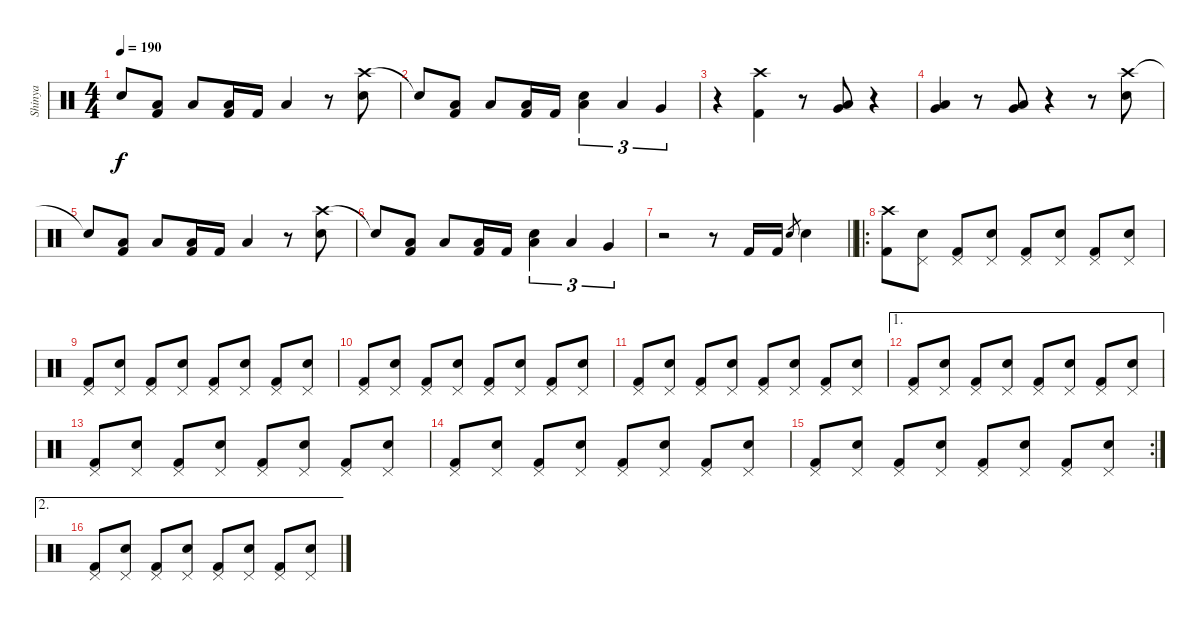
\track ("Shinya" "Shinya") {instrument percussion}
\staff {score}
\articulation defaults
\ts (4 4)
\tempo 190
\clef neutral
\ks c "Snare (hit)"{t}.8{dy f}
("Low Floor Tom (hit)" "Kick (hit) 2").8 "Low Floor Tom (hit)".8 ("Low Floor Tom (hit)" "Kick (hit) 2").16 "Kick (hit) 2".16 "Low Floor Tom (hit)".4 r.8 ("Crash high (hit)" "Electric Snare (hit)").8 |
"Snare (hit)"{t}.8 ("Low Floor Tom (hit)" "Kick (hit) 2").8 "Low Floor Tom (hit)".8 ("Low Floor Tom (hit)" "Kick (hit) 2").16 "Kick (hit) 2".16 ("Low Floor Tom (hit)" "Electric Snare (hit)").4{tu (3 2)} "Low Tom (hit)".4{tu (3 2)} "Very Low Tom (hit)".4{tu (3 2)} |
r.4 ("Crash high (hit)" "Kick (hit) 2").4 r.8 ("Low Tom (hit)" "Very Low Tom (hit)").8 r.4 |
("Very Low Tom (hit)" "Low Floor Tom (hit)").4 r.8 ("Very Low Tom (hit)" "Low Floor Tom (hit)").8 r.4 r.8 ("Crash high (hit)" "Electric Snare (hit)").8 |
"Snare (hit)"{t}.8 ("Low Floor Tom (hit)" "Kick (hit) 2").8 "Low Floor Tom (hit)".8 ("Low Floor Tom (hit)" "Kick (hit) 2").16 "Kick (hit) 2".16 "Low Floor Tom (hit)".4 r.8 ("Crash high (hit)" "Electric Snare (hit)").8 |
"Snare (hit)"{t}.8 ("Low Floor Tom (hit)" "Kick (hit) 2").8 "Low Floor Tom (hit)".8 ("Low Floor Tom (hit)" "Kick (hit) 2").16 "Kick (hit) 2".16 ("Low Floor Tom (hit)" "Electric Snare (hit)").4{tu (3 2)} "Low Tom (hit)".4{tu (3 2)} "Very Low Tom (hit)".4{tu (3 2)} |
\barLineRight lightlight
r.2 r.8 "Kick (hit) 2".16 "Kick (hit) 2".16 "Electric Snare (hit)".8{gr} "Electric Snare (hit)".4 |
\ro
("Crash high (hit)" "Kick (hit) 2").8 ("Pedal Hi-Hat (hit)" "Electric Snare (hit)").8 ("Pedal Hi-Hat (hit)" "Kick (hit) 2").8 ("Pedal Hi-Hat (hit)" "Electric Snare (hit)").8 ("Pedal Hi-Hat (hit)" "Kick (hit) 2").8 ("Pedal Hi-Hat (hit)" "Electric Snare (hit)").8 ("Pedal Hi-Hat (hit)" "Kick (hit) 2").8 ("Pedal Hi-Hat (hit)" "Electric Snare (hit)").8 |
("Pedal Hi-Hat (hit)" "Kick (hit) 2").8 ("Pedal Hi-Hat (hit)" "Electric Snare (hit)").8 ("Pedal Hi-Hat (hit)" "Kick (hit) 2").8 ("Pedal Hi-Hat (hit)" "Electric Snare (hit)").8 ("Pedal Hi-Hat (hit)" "Kick (hit) 2").8 ("Pedal Hi-Hat (hit)" "Electric Snare (hit)").8 ("Pedal Hi-Hat (hit)" "Kick (hit) 2").8 ("Pedal Hi-Hat (hit)" "Electric Snare (hit)").8 |
("Pedal Hi-Hat (hit)" "Kick (hit) 2").8 ("Pedal Hi-Hat (hit)" "Electric Snare (hit)").8 ("Pedal Hi-Hat (hit)" "Kick (hit) 2").8 ("Pedal Hi-Hat (hit)" "Electric Snare (hit)").8 ("Pedal Hi-Hat (hit)" "Kick (hit) 2").8 ("Pedal Hi-Hat (hit)" "Electric Snare (hit)").8 ("Pedal Hi-Hat (hit)" "Kick (hit) 2").8 ("Pedal Hi-Hat (hit)" "Electric Snare (hit)").8 |
("Pedal Hi-Hat (hit)" "Kick (hit) 2").8 ("Pedal Hi-Hat (hit)" "Electric Snare (hit)").8 ("Pedal Hi-Hat (hit)" "Kick (hit) 2").8 ("Pedal Hi-Hat (hit)" "Electric Snare (hit)").8 ("Pedal Hi-Hat (hit)" "Kick (hit) 2").8 ("Pedal Hi-Hat (hit)" "Electric Snare (hit)").8 ("Pedal Hi-Hat (hit)" "Kick (hit) 2").8 ("Pedal Hi-Hat (hit)" "Electric Snare (hit)").8 |
\ae 1
("Pedal Hi-Hat (hit)" "Kick (hit) 2").8 ("Pedal Hi-Hat (hit)" "Electric Snare (hit)").8 ("Pedal Hi-Hat (hit)" "Kick (hit) 2").8 ("Pedal Hi-Hat (hit)" "Electric Snare (hit)").8 ("Pedal Hi-Hat (hit)" "Kick (hit) 2").8 ("Pedal Hi-Hat (hit)" "Electric Snare (hit)").8 ("Pedal Hi-Hat (hit)" "Kick (hit) 2").8 ("Pedal Hi-Hat (hit)" "Electric Snare (hit)").8 |
("Pedal Hi-Hat (hit)" "Kick (hit) 2").8 ("Pedal Hi-Hat (hit)" "Electric Snare (hit)").8 ("Pedal Hi-Hat (hit)" "Kick (hit) 2").8 ("Pedal Hi-Hat (hit)" "Electric Snare (hit)").8 ("Pedal Hi-Hat (hit)" "Kick (hit) 2").8 ("Pedal Hi-Hat (hit)" "Electric Snare (hit)").8 ("Pedal Hi-Hat (hit)" "Kick (hit) 2").8 ("Pedal Hi-Hat (hit)" "Electric Snare (hit)").8 |
("Pedal Hi-Hat (hit)" "Kick (hit) 2").8 ("Pedal Hi-Hat (hit)" "Electric Snare (hit)").8 ("Pedal Hi-Hat (hit)" "Kick (hit) 2").8 ("Pedal Hi-Hat (hit)" "Electric Snare (hit)").8 ("Pedal Hi-Hat (hit)" "Kick (hit) 2").8 ("Pedal Hi-Hat (hit)" "Electric Snare (hit)").8 ("Pedal Hi-Hat (hit)" "Kick (hit) 2").8 ("Pedal Hi-Hat (hit)" "Electric Snare (hit)").8 |
\rc 2
("Pedal Hi-Hat (hit)" "Kick (hit) 2").8 ("Pedal Hi-Hat (hit)" "Electric Snare (hit)").8 ("Pedal Hi-Hat (hit)" "Kick (hit) 2").8 ("Pedal Hi-Hat (hit)" "Electric Snare (hit)").8 ("Pedal Hi-Hat (hit)" "Kick (hit) 2").8 ("Pedal Hi-Hat (hit)" "Electric Snare (hit)").8 ("Pedal Hi-Hat (hit)" "Kick (hit) 2").8 ("Pedal Hi-Hat (hit)" "Electric Snare (hit)").8 |
\ae 2
("Pedal Hi-Hat (hit)" "Kick (hit) 2").8 ("Pedal Hi-Hat (hit)" "Electric Snare (hit)").8 ("Pedal Hi-Hat (hit)" "Kick (hit) 2").8 ("Pedal Hi-Hat (hit)" "Electric Snare (hit)").8 ("Pedal Hi-Hat (hit)" "Kick (hit) 2").8 ("Pedal Hi-Hat (hit)" "Electric Snare (hit)").8 ("Pedal Hi-Hat (hit)" "Kick (hit) 2").8 ("Pedal Hi-Hat (hit)" "Electric Snare (hit)").8
